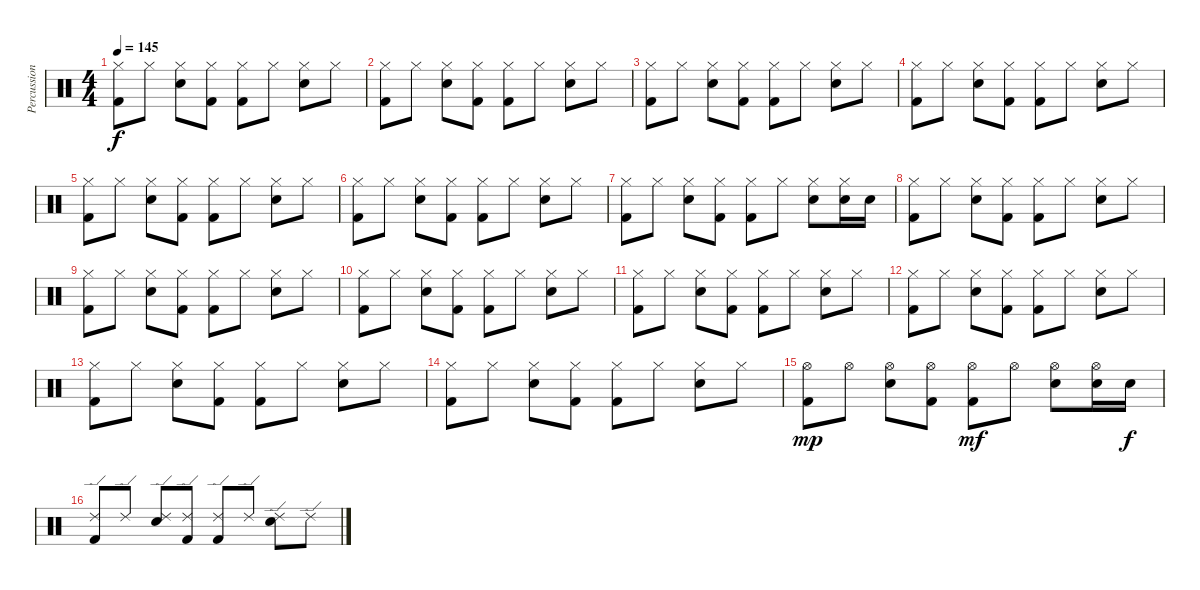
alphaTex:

\track ("Percussion" "Percussion") {instrument percussion}
\staff {score}
\articulation defaults
\ts (4 4)
\tempo 145
\clef neutral
\ks c
("Hi-Hat (closed)" "Kick (hit) 2").8{dy f} "Hi-Hat (closed)".8 ("Hi-Hat (closed)" "Electric Snare (hit)").8 ("Hi-Hat (closed)" "Kick (hit) 2").8 ("Hi-Hat (closed)" "Kick (hit) 2").8 "Hi-Hat (closed)".8 ("Hi-Hat (closed)" "Electric Snare (hit)").8 "Hi-Hat (closed)".8 |
("Hi-Hat (closed)" "Kick (hit) 2").8 "Hi-Hat (closed)".8 ("Hi-Hat (closed)" "Electric Snare (hit)").8 ("Hi-Hat (closed)" "Kick (hit) 2").8 ("Hi-Hat (closed)" "Kick (hit) 2").8 "Hi-Hat (closed)".8 ("Hi-Hat (closed)" "Electric Snare (hit)").8 "Hi-Hat (closed)".8 |
("Hi-Hat (closed)" "Kick (hit) 2").8 "Hi-Hat (closed)".8 ("Hi-Hat (closed)" "Electric Snare (hit)").8 ("Hi-Hat (closed)" "Kick (hit) 2").8 ("Hi-Hat (closed)" "Kick (hit) 2").8 "Hi-Hat (closed)".8 ("Hi-Hat (closed)" "Electric Snare (hit)").8 "Hi-Hat (closed)".8 |
("Hi-Hat (closed)" "Kick (hit) 2").8 "Hi-Hat (closed)".8 ("Hi-Hat (closed)" "Electric Snare (hit)").8 ("Hi-Hat (closed)" "Kick (hit) 2").8 ("Hi-Hat (closed)" "Kick (hit) 2").8 "Hi-Hat (closed)".8 ("Hi-Hat (closed)" "Electric Snare (hit)").8 "Hi-Hat (closed)".8 |
("Hi-Hat (closed)" "Kick (hit) 2").8 "Hi-Hat (closed)".8 ("Hi-Hat (closed)" "Electric Snare (hit)").8 ("Hi-Hat (closed)" "Kick (hit) 2").8 ("Hi-Hat (closed)" "Kick (hit) 2").8 "Hi-Hat (closed)".8 ("Hi-Hat (closed)" "Electric Snare (hit)").8 "Hi-Hat (closed)".8 |
("Hi-Hat (closed)" "Kick (hit) 2").8 "Hi-Hat (closed)".8 ("Hi-Hat (closed)" "Electric Snare (hit)").8 ("Hi-Hat (closed)" "Kick (hit) 2").8 ("Hi-Hat (closed)" "Kick (hit) 2").8 "Hi-Hat (closed)".8 ("Hi-Hat (closed)" "Electric Snare (hit)").8 "Hi-Hat (closed)".8 |
("Hi-Hat (closed)" "Kick (hit) 2").8 "Hi-Hat (closed)".8 ("Hi-Hat (closed)" "Electric Snare (hit)").8 ("Hi-Hat (closed)" "Kick (hit) 2").8 ("Hi-Hat (closed)" "Kick (hit) 2").8 "Hi-Hat (closed)".8 ("Hi-Hat (closed)" "Electric Snare (hit)").8 ("Hi-Hat (closed)" "Electric Snare (hit)").16 "Electric Snare (hit)".16 |
("Hi-Hat (closed)" "Kick (hit) 2").8 "Hi-Hat (closed)".8 ("Hi-Hat (closed)" "Electric Snare (hit)").8 ("Hi-Hat (closed)" "Kick (hit) 2").8 ("Hi-Hat (closed)" "Kick (hit) 2").8 "Hi-Hat (closed)".8 ("Hi-Hat (closed)" "Electric Snare (hit)").8 "Hi-Hat (closed)".8 |
("Hi-Hat (closed)" "Kick (hit) 2").8 "Hi-Hat (closed)".8 ("Hi-Hat (closed)" "Electric Snare (hit)").8 ("Hi-Hat (closed)" "Kick (hit) 2").8 ("Hi-Hat (closed)" "Kick (hit) 2").8 "Hi-Hat (closed)".8 ("Hi-Hat (closed)" "Electric Snare (hit)").8 "Hi-Hat (closed)".8 |
("Hi-Hat (closed)" "Kick (hit) 2").8 "Hi-Hat (closed)".8 ("Hi-Hat (closed)" "Electric Snare (hit)").8 ("Hi-Hat (closed)" "Kick (hit) 2").8 ("Hi-Hat (closed)" "Kick (hit) 2").8 "Hi-Hat (closed)".8 ("Hi-Hat (closed)" "Electric Snare (hit)").8 "Hi-Hat (closed)".8 |
("Hi-Hat (closed)" "Kick (hit) 2").8 "Hi-Hat (closed)".8 ("Hi-Hat (closed)" "Electric Snare (hit)").8 ("Hi-Hat (closed)" "Kick (hit) 2").8 ("Hi-Hat (closed)" "Kick (hit) 2").8 "Hi-Hat (closed)".8 ("Hi-Hat (closed)" "Electric Snare (hit)").8 "Hi-Hat (closed)".8 |
("Hi-Hat (closed)" "Kick (hit) 2").8 "Hi-Hat (closed)".8 ("Hi-Hat (closed)" "Electric Snare (hit)").8 ("Hi-Hat (closed)" "Kick (hit) 2").8 ("Hi-Hat (closed)" "Kick (hit) 2").8 "Hi-Hat (closed)".8 ("Hi-Hat (closed)" "Electric Snare (hit)").8 "Hi-Hat (closed)".8 |
("Hi-Hat (closed)" "Kick (hit) 2").8 "Hi-Hat (closed)".8 ("Hi-Hat (closed)" "Electric Snare (hit)").8 ("Hi-Hat (closed)" "Kick (hit) 2").8 ("Hi-Hat (closed)" "Kick (hit) 2").8 "Hi-Hat (closed)".8 ("Hi-Hat (closed)" "Electric Snare (hit)").8 "Hi-Hat (closed)".8 |
("Hi-Hat (closed)" "Kick (hit) 2").8 "Hi-Hat (closed)".8 ("Hi-Hat (closed)" "Electric Snare (hit)").8 ("Hi-Hat (closed)" "Kick (hit) 2").8 ("Hi-Hat (closed)" "Kick (hit) 2").8 "Hi-Hat (closed)".8 ("Hi-Hat (closed)" "Electric Snare (hit)").8 "Hi-Hat (closed)".8 |
("Hi-Hat (open)" "Kick (hit) 2").8{dy mp} "Hi-Hat (open)".8 ("Hi-Hat (open)" "Electric Snare (hit)").8 ("Hi-Hat (open)" "Kick (hit) 2").8 ("Hi-Hat (open)" "Kick (hit) 2").8{dy mf} "Hi-Hat (open)".8 ("Hi-Hat (open)" "Electric Snare (hit)").8 ("Hi-Hat (open)" "Electric Snare (hit)").16 "Electric Snare (hit)".16{dy f} |
("Ride (edge) 2" "Kick (hit) 2").8 "Ride (edge) 2".8 ("Ride (edge) 2" "Electric Snare (hit)").8 ("Ride (edge) 2" "Kick (hit) 2").8 ("Ride (edge) 2" "Kick (hit) 2").8 "Ride (edge) 2".8 ("Ride (edge) 2" "Electric Snare (hit)").8 "Ride (edge) 2".8
